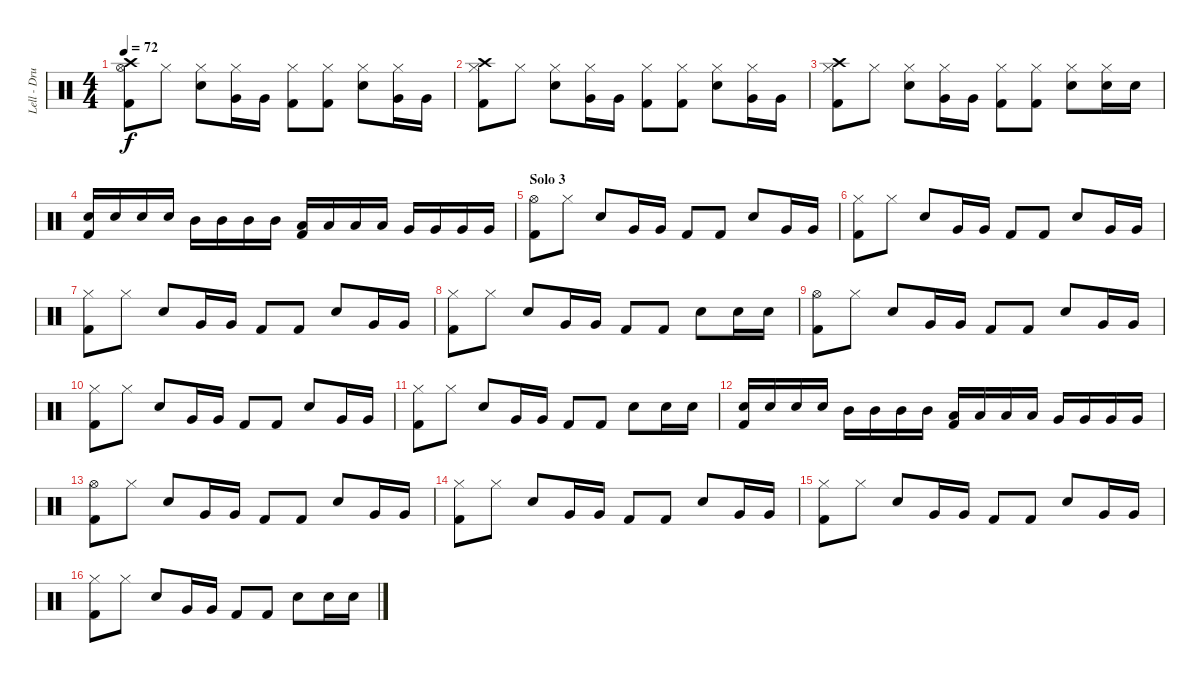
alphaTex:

\track ("Lell - Drums" "Lell - Dru") {instrument percussion}
\staff {score}
\articulation defaults
\ts (4 4)
\tempo 72
\clef neutral
\ks c
("Crash high (hit)" "Hi-Hat (open)" "Kick (hit) 2").8{dy f} "Hi-Hat (closed)".8 ("Hi-Hat (closed)" "Snare (hit) 2").8 ("Hi-Hat (closed)" "Very Low Tom (hit)").16 "Very Low Tom (hit)".16 ("Hi-Hat (closed)" "Kick (hit) 2").8 ("Hi-Hat (closed)" "Kick (hit) 2").8 ("Hi-Hat (closed)" "Snare (hit) 2").8 ("Hi-Hat (closed)" "Very Low Tom (hit)").16 "Very Low Tom (hit)".16 |
("Crash high (hit)" "Hi-Hat (closed)" "Kick (hit) 2").8 "Hi-Hat (closed)".8 ("Hi-Hat (closed)" "Snare (hit) 2").8 ("Hi-Hat (closed)" "Very Low Tom (hit)").16 "Very Low Tom (hit)".16 ("Hi-Hat (closed)" "Kick (hit) 2").8 ("Hi-Hat (closed)" "Kick (hit) 2").8 ("Hi-Hat (closed)" "Snare (hit) 2").8 ("Hi-Hat (closed)" "Very Low Tom (hit)").16 "Very Low Tom (hit)".16 |
("Crash high (hit)" "Hi-Hat (closed)" "Kick (hit) 2").8 "Hi-Hat (closed)".8 ("Hi-Hat (closed)" "Snare (hit) 2").8 ("Hi-Hat (closed)" "Very Low Tom (hit)").16 "Very Low Tom (hit)".16 ("Hi-Hat (closed)" "Kick (hit) 2").8 ("Hi-Hat (closed)" "Kick (hit) 2").8 ("Hi-Hat (closed)" "Snare (hit) 2").8 ("Hi-Hat (closed)" "Snare (hit) 2").16 "Snare (hit) 2".16 |
("Snare (hit) 2" "Kick (hit) 2").16 "Snare (hit) 2".16 "Snare (hit) 2".16 "Snare (hit) 2".16 "Mid Tom (hit)".16 "Mid Tom (hit)".16 "Mid Tom (hit)".16 "Mid Tom (hit)".16 ("Low Tom (hit)" "Kick (hit) 2").16 "Low Tom (hit)".16 "Low Tom (hit)".16 "Low Tom (hit)".16 "Very Low Tom (hit)".16 "Very Low Tom (hit)".16 "Very Low Tom (hit)".16 "Very Low Tom (hit)".16 |
\section ("" "Solo 3")
("Hi-Hat (open)" "Kick (hit) 2").8 "Hi-Hat (closed)".8 "Snare (hit) 2".8 "Very Low Tom (hit)".16 "Very Low Tom (hit)".16 "Kick (hit) 2".8 "Kick (hit) 2".8 "Snare (hit) 2".8 "Very Low Tom (hit)".16 "Very Low Tom (hit)".16 |
("Hi-Hat (closed)" "Kick (hit) 2").8 "Hi-Hat (closed)".8 "Snare (hit) 2".8 "Very Low Tom (hit)".16 "Very Low Tom (hit)".16 "Kick (hit) 2".8 "Kick (hit) 2".8 "Snare (hit) 2".8 "Very Low Tom (hit)".16 "Very Low Tom (hit)".16 |
("Hi-Hat (closed)" "Kick (hit) 2").8 "Hi-Hat (closed)".8 "Snare (hit) 2".8 "Very Low Tom (hit)".16 "Very Low Tom (hit)".16 "Kick (hit) 2".8 "Kick (hit) 2".8 "Snare (hit) 2".8 "Very Low Tom (hit)".16 "Very Low Tom (hit)".16 |
("Hi-Hat (closed)" "Kick (hit) 2").8 "Hi-Hat (closed)".8 "Snare (hit) 2".8 "Very Low Tom (hit)".16 "Very Low Tom (hit)".16 "Kick (hit) 2".8 "Kick (hit) 2".8 "Snare (hit) 2".8 "Snare (hit) 2".16 "Snare (hit) 2".16 |
("Hi-Hat (open)" "Kick (hit) 2").8 "Hi-Hat (closed)".8 "Snare (hit) 2".8 "Very Low Tom (hit)".16 "Very Low Tom (hit)".16 "Kick (hit) 2".8 "Kick (hit) 2".8 "Snare (hit) 2".8 "Very Low Tom (hit)".16 "Very Low Tom (hit)".16 |
("Hi-Hat (closed)" "Kick (hit) 2").8 "Hi-Hat (closed)".8 "Snare (hit) 2".8 "Very Low Tom (hit)".16 "Very Low Tom (hit)".16 "Kick (hit) 2".8 "Kick (hit) 2".8 "Snare (hit) 2".8 "Very Low Tom (hit)".16 "Very Low Tom (hit)".16 |
("Hi-Hat (closed)" "Kick (hit) 2").8 "Hi-Hat (closed)".8 "Snare (hit) 2".8 "Very Low Tom (hit)".16 "Very Low Tom (hit)".16 "Kick (hit) 2".8 "Kick (hit) 2".8 "Snare (hit) 2".8 "Snare (hit) 2".16 "Snare (hit) 2".16 |
("Snare (hit) 2" "Kick (hit) 2").16 "Snare (hit) 2".16 "Snare (hit) 2".16 "Snare (hit) 2".16 "Mid Tom (hit)".16 "Mid Tom (hit)".16 "Mid Tom (hit)".16 "Mid Tom (hit)".16 ("Low Tom (hit)" "Kick (hit) 2").16 "Low Tom (hit)".16 "Low Tom (hit)".16 "Low Tom (hit)".16 "Very Low Tom (hit)".16 "Very Low Tom (hit)".16 "Very Low Tom (hit)".16 "Very Low Tom (hit)".16 |
("Hi-Hat (open)" "Kick (hit) 2").8 "Hi-Hat (closed)".8 "Snare (hit) 2".8 "Very Low Tom (hit)".16 "Very Low Tom (hit)".16 "Kick (hit) 2".8 "Kick (hit) 2".8 "Snare (hit) 2".8 "Very Low Tom (hit)".16 "Very Low Tom (hit)".16 |
("Hi-Hat (closed)" "Kick (hit) 2").8 "Hi-Hat (closed)".8 "Snare (hit) 2".8 "Very Low Tom (hit)".16 "Very Low Tom (hit)".16 "Kick (hit) 2".8 "Kick (hit) 2".8 "Snare (hit) 2".8 "Very Low Tom (hit)".16 "Very Low Tom (hit)".16 |
("Hi-Hat (closed)" "Kick (hit) 2").8 "Hi-Hat (closed)".8 "Snare (hit) 2".8 "Very Low Tom (hit)".16 "Very Low Tom (hit)".16 "Kick (hit) 2".8 "Kick (hit) 2".8 "Snare (hit) 2".8 "Very Low Tom (hit)".16 "Very Low Tom (hit)".16 |
("Hi-Hat (closed)" "Kick (hit) 2").8 "Hi-Hat (closed)".8 "Snare (hit) 2".8 "Very Low Tom (hit)".16 "Very Low Tom (hit)".16 "Kick (hit) 2".8 "Kick (hit) 2".8 "Snare (hit) 2".8 "Snare (hit) 2".16 "Snare (hit) 2".16
